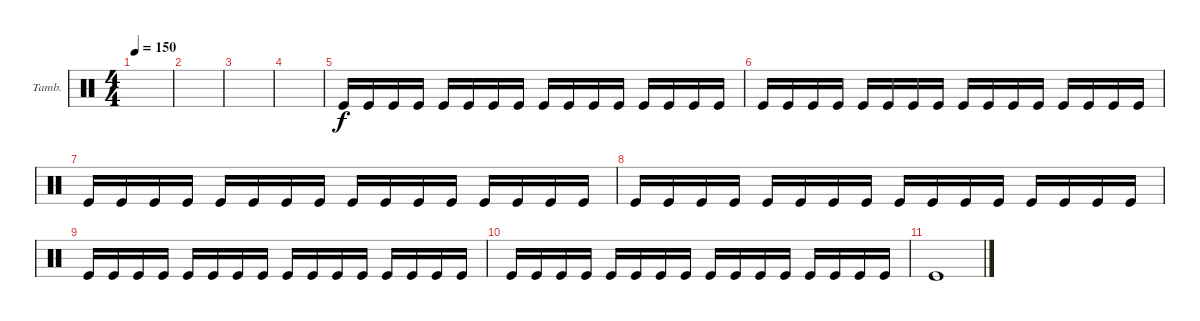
\defaultSystemsLayout 4
\bracketExtendMode groupsimilarinstruments
\firstSystemTrackNameOrientation horizontal
\otherSystemsTrackNameOrientation horizontal
\track ("Tambourine" "Tamb.") {instrument percussion}
\staff {score}
\articulation defaults
\ts (4 4)
\tempo 150
\clef neutral
\scale
0.333333
\ks c
|
\scale
0.333333 |
\scale
0.333333 |
\scale
0.333333 |
\scale
0.333333 "Kick (hit)".16 "Kick (hit)".16 "Kick (hit)".16 "Kick (hit)".16 "Kick (hit)".16 "Kick (hit)".16 "Kick (hit)".16 "Kick (hit)".16 "Kick (hit)".16 "Kick (hit)".16 "Kick (hit)".16 "Kick (hit)".16 "Kick (hit)".16 "Kick (hit)".16 "Kick (hit)".16 "Kick (hit)".16 |
\scale
0.333333 "Kick (hit)".16 "Kick (hit)".16 "Kick (hit)".16 "Kick (hit)".16 "Kick (hit)".16 "Kick (hit)".16 "Kick (hit)".16 "Kick (hit)".16 "Kick (hit)".16 "Kick (hit)".16 "Kick (hit)".16 "Kick (hit)".16 "Kick (hit)".16 "Kick (hit)".16 "Kick (hit)".16 "Kick (hit)".16 |
\scale
0.333333 "Kick (hit)".16 "Kick (hit)".16 "Kick (hit)".16 "Kick (hit)".16 "Kick (hit)".16 "Kick (hit)".16 "Kick (hit)".16 "Kick (hit)".16 "Kick (hit)".16 "Kick (hit)".16 "Kick (hit)".16 "Kick (hit)".16 "Kick (hit)".16 "Kick (hit)".16 "Kick (hit)".16 "Kick (hit)".16 |
\scale
0.333333 "Kick (hit)".16 "Kick (hit)".16 "Kick (hit)".16 "Kick (hit)".16 "Kick (hit)".16 "Kick (hit)".16 "Kick (hit)".16 "Kick (hit)".16 "Kick (hit)".16 "Kick (hit)".16 "Kick (hit)".16 "Kick (hit)".16 "Kick (hit)".16 "Kick (hit)".16 "Kick (hit)".16 "Kick (hit)".16 |
\scale
0.333333 "Kick (hit)".16 "Kick (hit)".16 "Kick (hit)".16 "Kick (hit)".16 "Kick (hit)".16 "Kick (hit)".16 "Kick (hit)".16 "Kick (hit)".16 "Kick (hit)".16 "Kick (hit)".16 "Kick (hit)".16 "Kick (hit)".16 "Kick (hit)".16 "Kick (hit)".16 "Kick (hit)".16 "Kick (hit)".16 |
\scale
0.333333 "Kick (hit)".16 "Kick (hit)".16 "Kick (hit)".16 "Kick (hit)".16 "Kick (hit)".16 "Kick (hit)".16 "Kick (hit)".16 "Kick (hit)".16 "Kick (hit)".16 "Kick (hit)".16 "Kick (hit)".16 "Kick (hit)".16 "Kick (hit)".16 "Kick (hit)".16 "Kick (hit)".16 "Kick (hit)".16 |
\scale
0.333333 "Kick (hit)".1 |
\scale
0.333333 |
\scale
0.333333 |
\scale
0.333333 |
\scale
0.333333 |
\scale
0.333333
